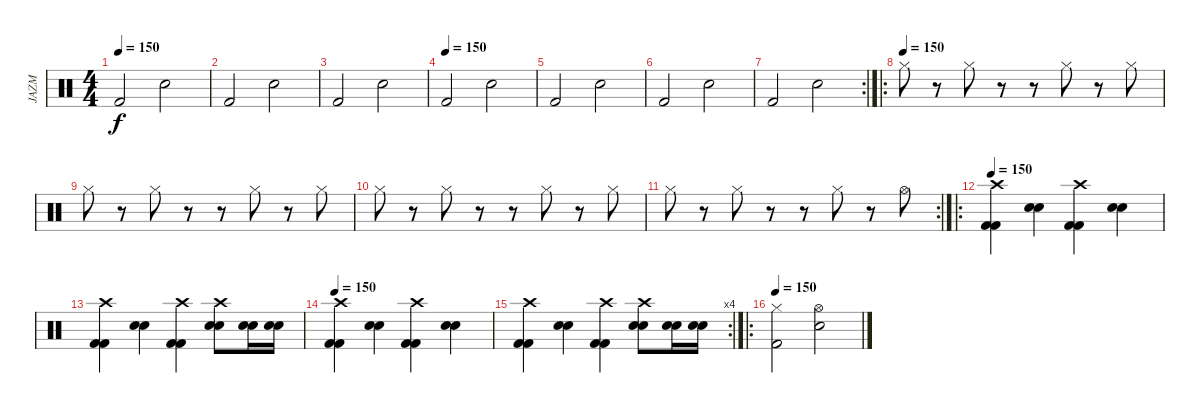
\track ("JAZM" "JAZM") {instrument percussion}
\staff {score}
\articulation defaults
\ts (4 4)
\tempo 150
\clef neutral
\ks c "Kick (hit) 2".2{dy f} "Electric Snare (hit)".2
|
"Kick (hit) 2".2 "Electric Snare (hit)".2 |
"Kick (hit) 2".2 "Electric Snare (hit)".2 |
\tempo (150)
"Kick (hit) 2".2 "Electric Snare (hit)".2 |
"Kick (hit) 2".2 "Electric Snare (hit)".2 |
"Kick (hit) 2".2 "Electric Snare (hit)".2 |
\rc 2 "Kick (hit) 2".2 "Electric Snare (hit)".2
|
\ro
\tempo (150)
"Hi-Hat (closed)".8 r.8 "Hi-Hat (closed)".8 r.8 r.8 "Hi-Hat (closed)".8 r.8 "Hi-Hat (closed)".8 |
"Hi-Hat (closed)".8 r.8 "Hi-Hat (closed)".8 r.8 r.8 "Hi-Hat (closed)".8 r.8 "Hi-Hat (closed)".8 |
"Hi-Hat (closed)".8 r.8 "Hi-Hat (closed)".8 r.8 r.8 "Hi-Hat (closed)".8 r.8 "Hi-Hat (closed)".8 |
\rc 2 "Hi-Hat (closed)".8
r.8 "Hi-Hat (closed)".8 r.8 r.8 "Hi-Hat (closed)".8 r.8 "Hi-Hat (open)".8 |
\ro
\tempo 150
("Crash high (hit)" "Kick (hit) 2" "Kick (hit) 2").4 ("Electric Snare (hit)" "Electric Snare (hit)").4 ("Crash high (hit)" "Kick (hit) 2" "Kick (hit) 2").4 ("Electric Snare (hit)" "Electric Snare (hit)").4 |
("Crash high (hit)" "Kick (hit) 2" "Kick (hit) 2").4 ("Electric Snare (hit)" "Electric Snare (hit)").4 ("Crash high (hit)" "Kick (hit) 2" "Kick (hit) 2").4 ("Crash high (hit)" "Electric Snare (hit)" "Electric Snare (hit)").8 ("Electric Snare (hit)" "Electric Snare (hit)").16 ("Electric Snare (hit)" "Electric Snare (hit)").16 |
\tempo 150
("Crash high (hit)" "Kick (hit) 2" "Kick (hit) 2").4 ("Electric Snare (hit)" "Electric Snare (hit)").4 ("Crash high (hit)" "Kick (hit) 2" "Kick (hit) 2").4 ("Electric Snare (hit)" "Electric Snare (hit)").4 |
\rc 4
("Crash high (hit)" "Kick (hit) 2" "Kick (hit) 2").4 ("Electric Snare (hit)" "Electric Snare (hit)").4 ("Crash high (hit)" "Kick (hit) 2" "Kick (hit) 2").4 ("Crash high (hit)" "Electric Snare (hit)" "Electric Snare (hit)").8 ("Electric Snare (hit)" "Electric Snare (hit)").16 ("Electric Snare (hit)" "Electric Snare (hit)").16 |
\ro
\tempo 150
("Hi-Hat (closed)" "Kick (hit) 2").2 ("Hi-Hat (open)" "Electric Snare (hit)").2
